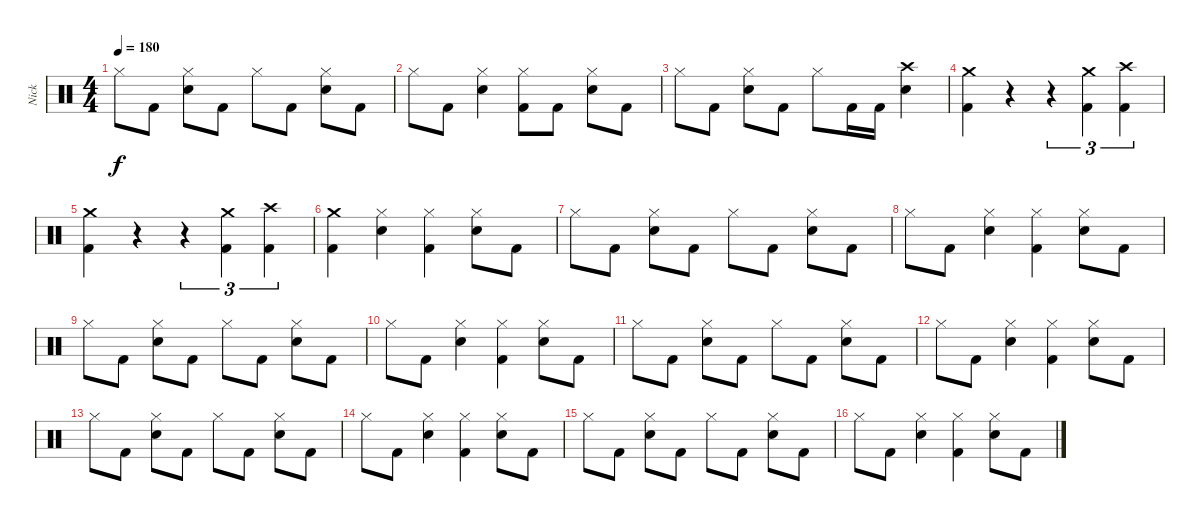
\track ("Nick" "Nick") {instrument percussion}
\staff {score}
\articulation defaults
\ts (4 4)
\tempo 180
\clef neutral
\ks c "Hi-Hat (closed)".8{dy f} "Kick (hit) 2".8
("Hi-Hat (closed)" "Electric Snare (hit)").8 "Kick (hit) 2".8 "Hi-Hat (closed)".8 "Kick (hit) 2".8 ("Hi-Hat (closed)" "Electric Snare (hit)").8 "Kick (hit) 2".8 |
"Hi-Hat (closed)".8 "Kick (hit) 2".8 ("Hi-Hat (closed)" "Electric Snare (hit)").4 ("Hi-Hat (closed)" "Kick (hit) 2").8 "Kick (hit) 2".8 ("Hi-Hat (closed)" "Electric Snare (hit)").8 "Kick (hit) 2".8 |
"Hi-Hat (closed)".8 "Kick (hit) 2".8 ("Hi-Hat (closed)" "Electric Snare (hit)").8 "Kick (hit) 2".8 "Hi-Hat (closed)".8 "Kick (hit) 2".16 "Kick (hit) 2".16 ("Crash high (hit)" "Electric Snare (hit)").4 |
("Crash medium (hit)" "Kick (hit) 2").4 r.4 r.4{tu (3 2)} ("Crash medium (hit)" "Kick (hit) 2").4{tu (3 2)} ("Crash high (hit)" "Kick (hit) 2").4{tu (3 2)} |
("Crash medium (hit)" "Kick (hit) 2").4 r.4 r.4{tu (3 2)} ("Crash medium (hit)" "Kick (hit) 2").4{tu (3 2)} ("Crash high (hit)" "Kick (hit) 2").4{tu (3 2)} |
("Crash medium (hit)" "Kick (hit) 2").4 ("Hi-Hat (closed)" "Electric Snare (hit)").4 ("Hi-Hat (closed)" "Kick (hit) 2").4 ("Hi-Hat (closed)" "Electric Snare (hit)").8 "Kick (hit) 2".8 |
"Hi-Hat (closed)".8 "Kick (hit) 2".8 ("Hi-Hat (closed)" "Electric Snare (hit)").8 "Kick (hit) 2".8 "Hi-Hat (closed)".8 "Kick (hit) 2".8 ("Hi-Hat (closed)" "Electric Snare (hit)").8 "Kick (hit) 2".8 |
"Hi-Hat (closed)".8 "Kick (hit) 2".8 ("Hi-Hat (closed)" "Electric Snare (hit)").4 ("Hi-Hat (closed)" "Kick (hit) 2").4 ("Hi-Hat (closed)" "Electric Snare (hit)").8 "Kick (hit) 2".8 |
"Hi-Hat (closed)".8 "Kick (hit) 2".8 ("Hi-Hat (closed)" "Electric Snare (hit)").8 "Kick (hit) 2".8 "Hi-Hat (closed)".8 "Kick (hit) 2".8 ("Hi-Hat (closed)" "Electric Snare (hit)").8 "Kick (hit) 2".8 |
"Hi-Hat (closed)".8 "Kick (hit) 2".8 ("Hi-Hat (closed)" "Electric Snare (hit)").4 ("Hi-Hat (closed)" "Kick (hit) 2").4 ("Hi-Hat (closed)" "Electric Snare (hit)").8 "Kick (hit) 2".8 |
"Hi-Hat (closed)".8 "Kick (hit) 2".8 ("Hi-Hat (closed)" "Electric Snare (hit)").8 "Kick (hit) 2".8 "Hi-Hat (closed)".8 "Kick (hit) 2".8 ("Hi-Hat (closed)" "Electric Snare (hit)").8 "Kick (hit) 2".8 |
"Hi-Hat (closed)".8 "Kick (hit) 2".8 ("Hi-Hat (closed)" "Electric Snare (hit)").4 ("Hi-Hat (closed)" "Kick (hit) 2").4 ("Hi-Hat (closed)" "Electric Snare (hit)").8 "Kick (hit) 2".8 |
"Hi-Hat (closed)".8 "Kick (hit) 2".8 ("Hi-Hat (closed)" "Electric Snare (hit)").8 "Kick (hit) 2".8 "Hi-Hat (closed)".8 "Kick (hit) 2".8 ("Hi-Hat (closed)" "Electric Snare (hit)").8 "Kick (hit) 2".8 |
"Hi-Hat (closed)".8 "Kick (hit) 2".8 ("Hi-Hat (closed)" "Electric Snare (hit)").4 ("Hi-Hat (closed)" "Kick (hit) 2").4 ("Hi-Hat (closed)" "Electric Snare (hit)").8 "Kick (hit) 2".8 |
"Hi-Hat (closed)".8 "Kick (hit) 2".8 ("Hi-Hat (closed)" "Electric Snare (hit)").8 "Kick (hit) 2".8 "Hi-Hat (closed)".8 "Kick (hit) 2".8 ("Hi-Hat (closed)" "Electric Snare (hit)").8 "Kick (hit) 2".8 |
"Hi-Hat (closed)".8 "Kick (hit) 2".8 ("Hi-Hat (closed)" "Electric Snare (hit)").4 ("Hi-Hat (closed)" "Kick (hit) 2").4 ("Hi-Hat (closed)" "Electric Snare (hit)").8 "Kick (hit) 2".8
